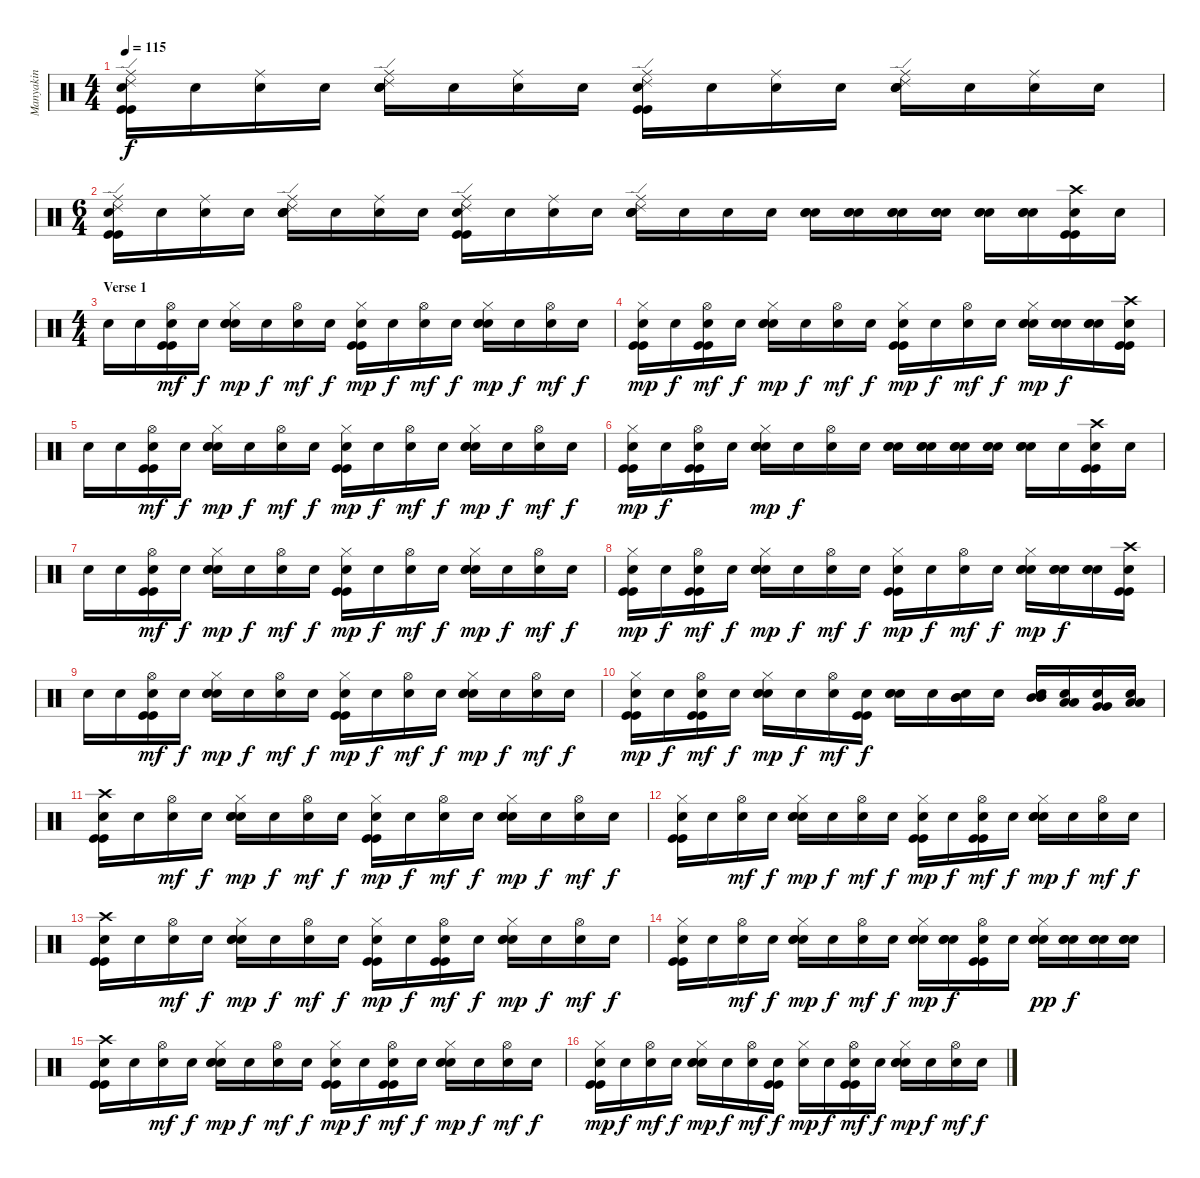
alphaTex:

\track ("Manyakin" "Manyakin") {instrument percussion}
\staff {score}
\articulation defaults
\ts (4 4)
\tempo 115
\clef neutral
\ks c
("Ride (middle)" "Ride (edge) 2" "Kick (hit)" "Kick (hit)" "Snare (hit)"{x}).16{dy f} "Snare (hit)"{x}.16 ("Ride (middle)" "Snare (hit)"{x}).16 "Snare (hit)"{x}.16 ("Ride (middle)" "Ride (edge) 2" "Electric Snare (hit)" "Electric Snare (hit)" "Snare (hit)"{x}).16 "Snare (hit)"{x}.16 ("Ride (middle)" "Snare (hit)"{x}).16 "Snare (hit)"{x}.16 ("Ride (middle)" "Ride (edge) 2" "Kick (hit)" "Kick (hit)" "Snare (hit)"{x}).16 "Snare (hit)"{x}.16 ("Ride (middle)" "Snare (hit)"{x}).16 "Snare (hit)"{x}.16 ("Ride (middle)" "Ride (edge) 2" "Electric Snare (hit)" "Electric Snare (hit)" "Snare (hit)"{x}).16 "Snare (hit)"{x}.16 ("Ride (middle)" "Snare (hit)"{x}).16 "Snare (hit)"{x}.16 |
\ts (6 4)
("Ride (middle)" "Ride (edge) 2" "Kick (hit)" "Kick (hit)" "Snare (hit)"{x}).16 "Snare (hit)"{x}.16 ("Ride (middle)" "Snare (hit)"{x}).16 "Snare (hit)"{x}.16 ("Ride (middle)" "Ride (edge) 2" "Electric Snare (hit)" "Electric Snare (hit)" "Snare (hit)"{x}).16 "Snare (hit)"{x}.16 ("Ride (middle)" "Snare (hit)"{x}).16 "Snare (hit)"{x}.16 ("Ride (middle)" "Ride (edge) 2" "Kick (hit)" "Kick (hit)" "Snare (hit)"{x}).16 "Snare (hit)"{x}.16 ("Ride (middle)" "Snare (hit)"{x}).16 "Snare (hit)"{x}.16 ("Ride (middle)" "Ride (edge) 2" "Electric Snare (hit)" "Electric Snare (hit)" "Snare (hit)"{x}).16 "Snare (hit)"{x}.16 "Snare (hit)"{x}.16 "Snare (hit)"{x}.16 ("Electric Snare (hit)" "Electric Snare (hit)" "Snare (hit)"{x}).16 ("Electric Snare (hit)" "Electric Snare (hit)" "Snare (hit)"{x}).16 ("Electric Snare (hit)" "Electric Snare (hit)" "Snare (hit)"{x}).16 ("Electric Snare (hit)" "Electric Snare (hit)" "Snare (hit)"{x}).16 ("Electric Snare (hit)" "Electric Snare (hit)" "Snare (hit)"{x}).16 ("Electric Snare (hit)" "Electric Snare (hit)" "Snare (hit)"{x}).16 ("Crash high (hit)" "Kick (hit)" "Kick (hit)" "Snare (hit)"{x}).16 "Snare (hit)"{x}.16 |
\ts (4 4)
\section ("" "Verse 1")
"Snare (hit)"{x}.16 "Snare (hit)"{x}.16 ("Hi-Hat (open)" "Kick (hit)" "Kick (hit)" "Snare (hit)"{x}).16{dy mf} "Snare (hit)"{x}.16{dy f} ("Hi-Hat (closed)" "Electric Snare (hit)" "Electric Snare (hit)" "Snare (hit)"{x}).16{dy mp} "Snare (hit)"{x}.16{dy f} ("Hi-Hat (open)" "Snare (hit)"{x}).16{dy mf} "Snare (hit)"{x}.16{dy f} ("Hi-Hat (closed)" "Kick (hit)" "Kick (hit)" "Snare (hit)"{x}).16{dy mp} "Snare (hit)"{x}.16{dy f} ("Hi-Hat (open)" "Snare (hit)"{x}).16{dy mf} "Snare (hit)"{x}.16{dy f} ("Hi-Hat (closed)" "Electric Snare (hit)" "Electric Snare (hit)" "Snare (hit)"{x}).16{dy mp} "Snare (hit)"{x}.16{dy f} ("Hi-Hat (open)" "Snare (hit)"{x}).16{dy mf} "Snare (hit)"{x}.16{dy f} |
("Hi-Hat (closed)" "Kick (hit)" "Kick (hit)" "Snare (hit)"{x}).16{dy mp} "Snare (hit)"{x}.16{dy f} ("Hi-Hat (open)" "Kick (hit)" "Kick (hit)" "Snare (hit)"{x}).16{dy mf} "Snare (hit)"{x}.16{dy f} ("Hi-Hat (closed)" "Electric Snare (hit)" "Electric Snare (hit)" "Snare (hit)"{x}).16{dy mp} "Snare (hit)"{x}.16{dy f} ("Hi-Hat (open)" "Snare (hit)"{x}).16{dy mf} "Snare (hit)"{x}.16{dy f} ("Hi-Hat (closed)" "Kick (hit)" "Kick (hit)" "Snare (hit)"{x}).16{dy mp} "Snare (hit)"{x}.16{dy f} ("Hi-Hat (open)" "Snare (hit)"{x}).16{dy mf} "Snare (hit)"{x}.16{dy f} ("Hi-Hat (closed)" "Electric Snare (hit)" "Electric Snare (hit)" "Snare (hit)"{x}).16{dy mp} ("Electric Snare (hit)" "Electric Snare (hit)" "Snare (hit)"{x}).16{dy f} ("Electric Snare (hit)" "Electric Snare (hit)" "Snare (hit)"{x}).16 ("Crash high (hit)" "Kick (hit)" "Kick (hit)" "Snare (hit)"{x}).16 |
"Snare (hit)"{x}.16 "Snare (hit)"{x}.16 ("Hi-Hat (open)" "Kick (hit)" "Kick (hit)" "Snare (hit)"{x}).16{dy mf} "Snare (hit)"{x}.16{dy f} ("Hi-Hat (closed)" "Electric Snare (hit)" "Electric Snare (hit)" "Snare (hit)"{x}).16{dy mp} "Snare (hit)"{x}.16{dy f} ("Hi-Hat (open)" "Snare (hit)"{x}).16{dy mf} "Snare (hit)"{x}.16{dy f} ("Hi-Hat (closed)" "Kick (hit)" "Kick (hit)" "Snare (hit)"{x}).16{dy mp} "Snare (hit)"{x}.16{dy f} ("Hi-Hat (open)" "Snare (hit)"{x}).16{dy mf} "Snare (hit)"{x}.16{dy f} ("Hi-Hat (closed)" "Electric Snare (hit)" "Electric Snare (hit)" "Snare (hit)"{x}).16{dy mp} "Snare (hit)"{x}.16{dy f} ("Hi-Hat (open)" "Snare (hit)"{x}).16{dy mf} "Snare (hit)"{x}.16{dy f} |
("Hi-Hat (closed)" "Kick (hit)" "Kick (hit)" "Snare (hit)"{x}).16{dy mp} "Snare (hit)"{x}.16{dy f} ("Hi-Hat (open)" "Kick (hit)" "Kick (hit)" "Snare (hit)"{x}).16 "Snare (hit)"{x}.16 ("Hi-Hat (closed)" "Electric Snare (hit)" "Electric Snare (hit)" "Snare (hit)"{x}).16{dy mp} "Snare (hit)"{x}.16{dy f} ("Hi-Hat (open)" "Snare (hit)"{x}).16 "Snare (hit)"{x}.16 ("Electric Snare (hit)" "Electric Snare (hit)" "Snare (hit)"{x}).16 ("Electric Snare (hit)" "Electric Snare (hit)" "Snare (hit)"{x}).16 ("Electric Snare (hit)" "Electric Snare (hit)" "Snare (hit)"{x}).16 ("Electric Snare (hit)" "Electric Snare (hit)" "Snare (hit)"{x}).16 ("Electric Snare (hit)" "Electric Snare (hit)" "Snare (hit)"{x}).16 "Snare (hit)"{x}.16 ("Crash high (hit)" "Kick (hit)" "Kick (hit)" "Snare (hit)"{x}).16 "Snare (hit)"{x}.16 |
"Snare (hit)"{x}.16 "Snare (hit)"{x}.16 ("Hi-Hat (open)" "Kick (hit)" "Kick (hit)" "Snare (hit)"{x}).16{dy mf} "Snare (hit)"{x}.16{dy f} ("Hi-Hat (closed)" "Electric Snare (hit)" "Electric Snare (hit)" "Snare (hit)"{x}).16{dy mp} "Snare (hit)"{x}.16{dy f} ("Hi-Hat (open)" "Snare (hit)"{x}).16{dy mf} "Snare (hit)"{x}.16{dy f} ("Hi-Hat (closed)" "Kick (hit)" "Kick (hit)" "Snare (hit)"{x}).16{dy mp} "Snare (hit)"{x}.16{dy f} ("Hi-Hat (open)" "Snare (hit)"{x}).16{dy mf} "Snare (hit)"{x}.16{dy f} ("Hi-Hat (closed)" "Electric Snare (hit)" "Electric Snare (hit)" "Snare (hit)"{x}).16{dy mp} "Snare (hit)"{x}.16{dy f} ("Hi-Hat (open)" "Snare (hit)"{x}).16{dy mf} "Snare (hit)"{x}.16{dy f} |
("Hi-Hat (closed)" "Kick (hit)" "Kick (hit)" "Snare (hit)"{x}).16{dy mp} "Snare (hit)"{x}.16{dy f} ("Hi-Hat (open)" "Kick (hit)" "Kick (hit)" "Snare (hit)"{x}).16{dy mf} "Snare (hit)"{x}.16{dy f} ("Hi-Hat (closed)" "Electric Snare (hit)" "Electric Snare (hit)" "Snare (hit)"{x}).16{dy mp} "Snare (hit)"{x}.16{dy f} ("Hi-Hat (open)" "Snare (hit)"{x}).16{dy mf} "Snare (hit)"{x}.16{dy f} ("Hi-Hat (closed)" "Kick (hit)" "Kick (hit)" "Snare (hit)"{x}).16{dy mp} "Snare (hit)"{x}.16{dy f} ("Hi-Hat (open)" "Snare (hit)"{x}).16{dy mf} "Snare (hit)"{x}.16{dy f} ("Hi-Hat (closed)" "Electric Snare (hit)" "Electric Snare (hit)" "Snare (hit)"{x}).16{dy mp} ("Electric Snare (hit)" "Electric Snare (hit)" "Snare (hit)"{x}).16{dy f} ("Electric Snare (hit)" "Electric Snare (hit)" "Snare (hit)"{x}).16 ("Crash high (hit)" "Kick (hit)" "Kick (hit)" "Snare (hit)"{x}).16 |
"Snare (hit)"{x}.16 "Snare (hit)"{x}.16 ("Hi-Hat (open)" "Kick (hit)" "Kick (hit)" "Snare (hit)"{x}).16{dy mf} "Snare (hit)"{x}.16{dy f} ("Hi-Hat (closed)" "Electric Snare (hit)" "Electric Snare (hit)" "Snare (hit)"{x}).16{dy mp} "Snare (hit)"{x}.16{dy f} ("Hi-Hat (open)" "Snare (hit)"{x}).16{dy mf} "Snare (hit)"{x}.16{dy f} ("Hi-Hat (closed)" "Kick (hit)" "Kick (hit)" "Snare (hit)"{x}).16{dy mp} "Snare (hit)"{x}.16{dy f} ("Hi-Hat (open)" "Snare (hit)"{x}).16{dy mf} "Snare (hit)"{x}.16{dy f} ("Hi-Hat (closed)" "Electric Snare (hit)" "Electric Snare (hit)" "Snare (hit)"{x}).16{dy mp} "Snare (hit)"{x}.16{dy f} ("Hi-Hat (open)" "Snare (hit)"{x}).16{dy mf} "Snare (hit)"{x}.16{dy f} |
("Hi-Hat (closed)" "Kick (hit)" "Kick (hit)" "Snare (hit)"{x}).16{dy mp} "Snare (hit)"{x}.16{dy f} ("Hi-Hat (open)" "Kick (hit)" "Kick (hit)" "Snare (hit)"{x}).16{dy mf} "Snare (hit)"{x}.16{dy f} ("Hi-Hat (closed)" "Electric Snare (hit)" "Electric Snare (hit)" "Snare (hit)"{x}).16{dy mp} "Snare (hit)"{x}.16{dy f} ("Hi-Hat (open)" "Snare (hit)"{x}).16{dy mf} ("Kick (hit)" "Kick (hit)" "Snare (hit)"{x}).16{dy f} ("Electric Snare (hit)" "Electric Snare (hit)" "Snare (hit)"{x}).16 "Snare (hit)"{x}.16 ("Mid Tom (hit)" "Mid Tom (hit)" "Snare (hit)"{x}).16 "Snare (hit)"{x}.16 ("Mid Tom (hit)" "Mid Tom (hit)" "Snare (hit)"{x}).16 ("Low Tom (hit)" "Low Tom (hit)" "Snare (hit)"{x}).16 ("Very Low Tom (hit)" "Very Low Tom (hit)" "Snare (hit)"{x}).16 ("Low Floor Tom (hit)" "Low Floor Tom (hit)" "Snare (hit)"{x}).16 |
("Crash high (hit)" "Kick (hit)" "Kick (hit)" "Snare (hit)"{x}).16 "Snare (hit)"{x}.16 ("Hi-Hat (open)" "Snare (hit)"{x}).16{dy mf} "Snare (hit)"{x}.16{dy f} ("Hi-Hat (closed)" "Electric Snare (hit)" "Electric Snare (hit)" "Snare (hit)"{x}).16{dy mp} "Snare (hit)"{x}.16{dy f} ("Hi-Hat (open)" "Snare (hit)"{x}).16{dy mf} "Snare (hit)"{x}.16{dy f} ("Hi-Hat (closed)" "Kick (hit)" "Kick (hit)" "Snare (hit)"{x}).16{dy mp} "Snare (hit)"{x}.16{dy f} ("Hi-Hat (open)" "Snare (hit)"{x}).16{dy mf} "Snare (hit)"{x}.16{dy f} ("Hi-Hat (closed)" "Electric Snare (hit)" "Electric Snare (hit)" "Snare (hit)"{x}).16{dy mp} "Snare (hit)"{x}.16{dy f} ("Hi-Hat (open)" "Snare (hit)"{x}).16{dy mf} "Snare (hit)"{x}.16{dy f} |
("Hi-Hat (closed)" "Kick (hit)" "Kick (hit)" "Snare (hit)"{x}).16 "Snare (hit)"{x}.16 ("Hi-Hat (open)" "Snare (hit)"{x}).16{dy mf} "Snare (hit)"{x}.16{dy f} ("Hi-Hat (closed)" "Electric Snare (hit)" "Electric Snare (hit)" "Snare (hit)"{x}).16{dy mp} "Snare (hit)"{x}.16{dy f} ("Hi-Hat (open)" "Snare (hit)"{x}).16{dy mf} "Snare (hit)"{x}.16{dy f} ("Hi-Hat (closed)" "Kick (hit)" "Kick (hit)" "Snare (hit)"{x}).16{dy mp} "Snare (hit)"{x}.16{dy f} ("Hi-Hat (open)" "Kick (hit)" "Kick (hit)" "Snare (hit)"{x}).16{dy mf} "Snare (hit)"{x}.16{dy f} ("Hi-Hat (closed)" "Electric Snare (hit)" "Electric Snare (hit)" "Snare (hit)"{x}).16{dy mp} "Snare (hit)"{x}.16{dy f} ("Hi-Hat (open)" "Snare (hit)"{x}).16{dy mf} "Snare (hit)"{x}.16{dy f} |
("Crash high (hit)" "Kick (hit)" "Kick (hit)" "Snare (hit)"{x}).16 "Snare (hit)"{x}.16 ("Hi-Hat (open)" "Snare (hit)"{x}).16{dy mf} "Snare (hit)"{x}.16{dy f} ("Hi-Hat (closed)" "Electric Snare (hit)" "Electric Snare (hit)" "Snare (hit)"{x}).16{dy mp} "Snare (hit)"{x}.16{dy f} ("Hi-Hat (open)" "Snare (hit)"{x}).16{dy mf} "Snare (hit)"{x}.16{dy f} ("Hi-Hat (closed)" "Kick (hit)" "Kick (hit)" "Snare (hit)"{x}).16{dy mp} "Snare (hit)"{x}.16{dy f} ("Hi-Hat (open)" "Kick (hit)" "Kick (hit)" "Snare (hit)"{x}).16{dy mf} "Snare (hit)"{x}.16{dy f} ("Hi-Hat (closed)" "Electric Snare (hit)" "Electric Snare (hit)" "Snare (hit)"{x}).16{dy mp} "Snare (hit)"{x}.16{dy f} ("Hi-Hat (open)" "Snare (hit)"{x}).16{dy mf} "Snare (hit)"{x}.16{dy f} |
("Hi-Hat (closed)" "Kick (hit)" "Kick (hit)" "Snare (hit)"{x}).16 "Snare (hit)"{x}.16 ("Hi-Hat (open)" "Snare (hit)"{x}).16{dy mf} "Snare (hit)"{x}.16{dy f} ("Hi-Hat (closed)" "Electric Snare (hit)" "Electric Snare (hit)" "Snare (hit)"{x}).16{dy mp} "Snare (hit)"{x}.16{dy f} ("Hi-Hat (open)" "Snare (hit)"{x}).16{dy mf} "Snare (hit)"{x}.16{dy f} ("Hi-Hat (closed)" "Electric Snare (hit)" "Electric Snare (hit)" "Snare (hit)"{x}).16{dy mp} ("Electric Snare (hit)" "Electric Snare (hit)" "Snare (hit)"{x}).16{dy f} ("Hi-Hat (open)" "Kick (hit)" "Kick (hit)" "Snare (hit)"{x}).16 "Snare (hit)"{x}.16 ("Hi-Hat (closed)" "Electric Snare (hit)" "Electric Snare (hit)" "Snare (hit)"{x}).16{dy pp} ("Electric Snare (hit)" "Electric Snare (hit)" "Snare (hit)"{x}).16{dy f} ("Electric Snare (hit)" "Electric Snare (hit)" "Snare (hit)"{x}).16 ("Electric Snare (hit)" "Electric Snare (hit)" "Snare (hit)"{x}).16 |
("Crash high (hit)" "Kick (hit)" "Kick (hit)" "Snare (hit)"{x}).16 "Snare (hit)"{x}.16 ("Hi-Hat (open)" "Snare (hit)"{x}).16{dy mf} "Snare (hit)"{x}.16{dy f} ("Hi-Hat (closed)" "Electric Snare (hit)" "Electric Snare (hit)" "Snare (hit)"{x}).16{dy mp} "Snare (hit)"{x}.16{dy f} ("Hi-Hat (open)" "Snare (hit)"{x}).16{dy mf} "Snare (hit)"{x}.16{dy f} ("Hi-Hat (closed)" "Kick (hit)" "Kick (hit)" "Snare (hit)"{x}).16{dy mp} "Snare (hit)"{x}.16{dy f} ("Hi-Hat (open)" "Kick (hit)" "Kick (hit)" "Snare (hit)"{x}).16{dy mf} "Snare (hit)"{x}.16{dy f} ("Hi-Hat (closed)" "Electric Snare (hit)" "Electric Snare (hit)" "Snare (hit)"{x}).16{dy mp} "Snare (hit)"{x}.16{dy f} ("Hi-Hat (open)" "Snare (hit)"{x}).16{dy mf} "Snare (hit)"{x}.16{dy f} |
("Hi-Hat (closed)" "Kick (hit)" "Kick (hit)" "Snare (hit)"{x}).16{dy mp} "Snare (hit)"{x}.16{dy f} ("Hi-Hat (open)" "Snare (hit)"{x}).16{dy mf} "Snare (hit)"{x}.16{dy f} ("Hi-Hat (closed)" "Electric Snare (hit)" "Electric Snare (hit)" "Snare (hit)"{x}).16{dy mp} "Snare (hit)"{x}.16{dy f} ("Hi-Hat (open)" "Snare (hit)"{x}).16{dy mf} ("Kick (hit)" "Kick (hit)" "Snare (hit)"{x}).16{dy f} ("Hi-Hat (closed)" "Snare (hit)"{x}).16{dy mp} "Snare (hit)"{x}.16{dy f} ("Hi-Hat (open)" "Kick (hit)" "Kick (hit)" "Snare (hit)"{x}).16{dy mf} "Snare (hit)"{x}.16{dy f} ("Hi-Hat (closed)" "Electric Snare (hit)" "Electric Snare (hit)" "Snare (hit)"{x}).16{dy mp} "Snare (hit)"{x}.16{dy f} ("Hi-Hat (open)" "Snare (hit)"{x}).16{dy mf} "Snare (hit)"{x}.16{dy f}
